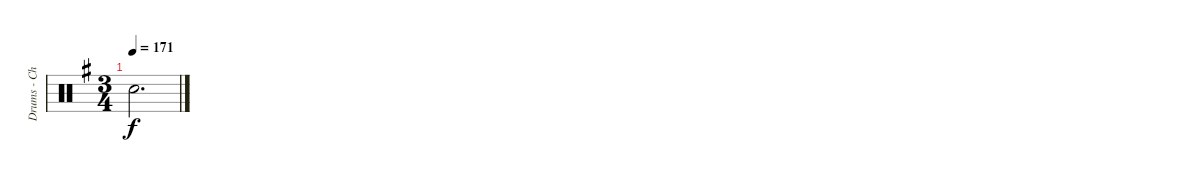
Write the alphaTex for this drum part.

\track ("Drums - Chris Hornbrook" "Drums - Ch") {instrument percussion}
\staff {score}
\articulation defaults
\ts (3 4)
\tempo 171
\clef neutral
\ks eminor "Snare (hit)"{t}.2{d dy f}
